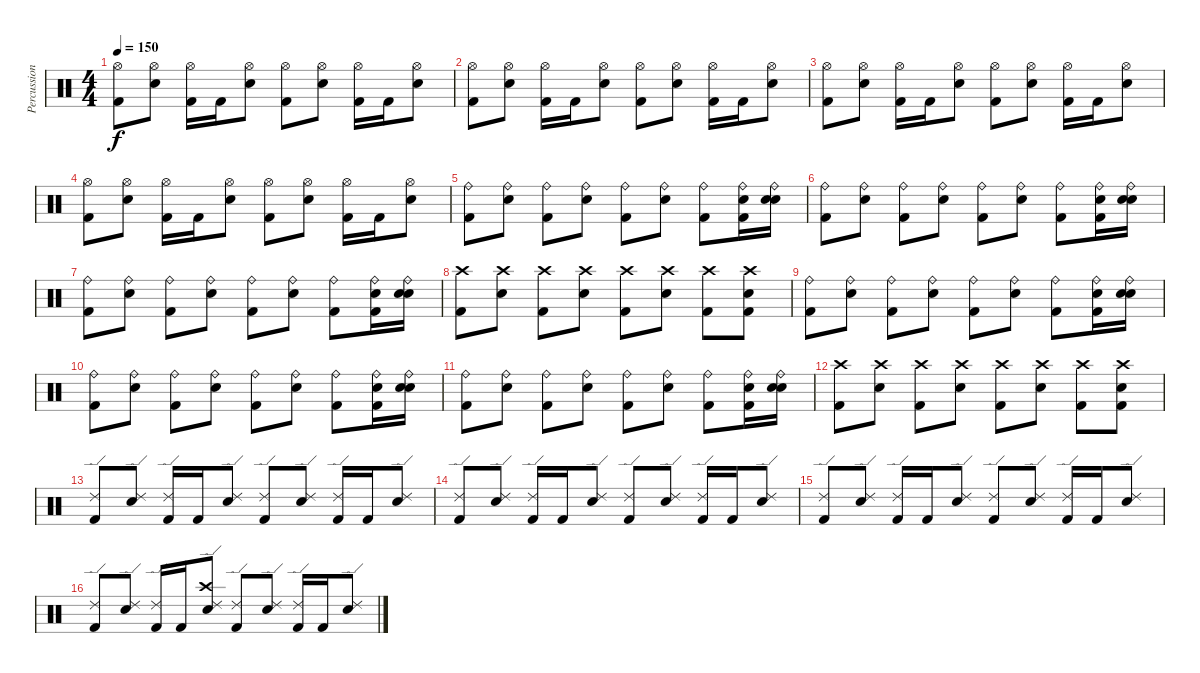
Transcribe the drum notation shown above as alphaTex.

\track ("Percussion" "Percussion") {instrument percussion}
\staff {score}
\articulation defaults
\ts (4 4)
\tempo 150
\clef neutral
\ks c
("Hi-Hat (open)" "Kick (hit) 2").8{dy f} ("Hi-Hat (open)" "Snare (hit) 2").8 ("Hi-Hat (open)" "Kick (hit) 2").16 "Kick (hit) 2".16 ("Hi-Hat (open)" "Snare (hit) 2").8 ("Hi-Hat (open)" "Kick (hit) 2").8 ("Hi-Hat (open)" "Snare (hit) 2").8 ("Hi-Hat (open)" "Kick (hit) 2").16 "Kick (hit) 2".16 ("Hi-Hat (open)" "Snare (hit) 2").8 |
("Hi-Hat (open)" "Kick (hit) 2").8 ("Hi-Hat (open)" "Snare (hit) 2").8 ("Hi-Hat (open)" "Kick (hit) 2").16 "Kick (hit) 2".16 ("Hi-Hat (open)" "Snare (hit) 2").8 ("Hi-Hat (open)" "Kick (hit) 2").8 ("Hi-Hat (open)" "Snare (hit) 2").8 ("Hi-Hat (open)" "Kick (hit) 2").16 "Kick (hit) 2".16 ("Hi-Hat (open)" "Snare (hit) 2").8 |
("Hi-Hat (open)" "Kick (hit) 2").8 ("Hi-Hat (open)" "Snare (hit) 2").8 ("Hi-Hat (open)" "Kick (hit) 2").16 "Kick (hit) 2".16 ("Hi-Hat (open)" "Snare (hit) 2").8 ("Hi-Hat (open)" "Kick (hit) 2").8 ("Hi-Hat (open)" "Snare (hit) 2").8 ("Hi-Hat (open)" "Kick (hit) 2").16 "Kick (hit) 2".16 ("Hi-Hat (open)" "Snare (hit) 2").8 |
("Hi-Hat (open)" "Kick (hit) 2").8 ("Hi-Hat (open)" "Snare (hit) 2").8 ("Hi-Hat (open)" "Kick (hit) 2").16 "Kick (hit) 2".16 ("Hi-Hat (open)" "Snare (hit) 2").8 ("Hi-Hat (open)" "Kick (hit) 2").8 ("Hi-Hat (open)" "Snare (hit) 2").8 ("Hi-Hat (open)" "Kick (hit) 2").16 "Kick (hit) 2".16 ("Hi-Hat (open)" "Snare (hit) 2").8 |
("Ride (bell)" "Kick (hit) 2").8 ("Ride (bell)" "Snare (hit) 2").8 ("Ride (bell)" "Kick (hit) 2").8 ("Ride (bell)" "Snare (hit) 2").8 ("Ride (bell)" "Kick (hit) 2").8 ("Ride (bell)" "Snare (hit) 2").8 ("Ride (bell)" "Kick (hit) 2").8 ("Ride (bell)" "Snare (hit) 2" "Kick (hit) 2").16 ("Ride (bell)" "Snare (hit) 2" "Snare (hit) 2").16 |
("Ride (bell)" "Kick (hit) 2").8 ("Ride (bell)" "Snare (hit) 2").8 ("Ride (bell)" "Kick (hit) 2").8 ("Ride (bell)" "Snare (hit) 2").8 ("Ride (bell)" "Kick (hit) 2").8 ("Ride (bell)" "Snare (hit) 2").8 ("Ride (bell)" "Kick (hit) 2").8 ("Ride (bell)" "Snare (hit) 2" "Kick (hit) 2").16 ("Ride (bell)" "Snare (hit) 2" "Snare (hit) 2").16 |
("Ride (bell)" "Kick (hit) 2").8 ("Ride (bell)" "Snare (hit) 2").8 ("Ride (bell)" "Kick (hit) 2").8 ("Ride (bell)" "Snare (hit) 2").8 ("Ride (bell)" "Kick (hit) 2").8 ("Ride (bell)" "Snare (hit) 2").8 ("Ride (bell)" "Kick (hit) 2").8 ("Ride (bell)" "Snare (hit) 2" "Kick (hit) 2").16 ("Ride (bell)" "Snare (hit) 2" "Snare (hit) 2").16 |
("Crash high (hit)" "Kick (hit) 2").8 ("Crash high (hit)" "Snare (hit) 2").8 ("Crash high (hit)" "Kick (hit) 2").8 ("Crash high (hit)" "Snare (hit) 2").8 ("Crash high (hit)" "Kick (hit) 2").8 ("Crash high (hit)" "Snare (hit) 2").8 ("Crash high (hit)" "Kick (hit) 2").8 ("Crash high (hit)" "Snare (hit) 2" "Kick (hit) 2").8 |
("Ride (bell)" "Kick (hit) 2").8 ("Ride (bell)" "Snare (hit) 2").8 ("Ride (bell)" "Kick (hit) 2").8 ("Ride (bell)" "Snare (hit) 2").8 ("Ride (bell)" "Kick (hit) 2").8 ("Ride (bell)" "Snare (hit) 2").8 ("Ride (bell)" "Kick (hit) 2").8 ("Ride (bell)" "Snare (hit) 2" "Kick (hit) 2").16 ("Ride (bell)" "Snare (hit) 2" "Snare (hit) 2").16 |
("Ride (bell)" "Kick (hit) 2").8 ("Ride (bell)" "Snare (hit) 2").8 ("Ride (bell)" "Kick (hit) 2").8 ("Ride (bell)" "Snare (hit) 2").8 ("Ride (bell)" "Kick (hit) 2").8 ("Ride (bell)" "Snare (hit) 2").8 ("Ride (bell)" "Kick (hit) 2").8 ("Ride (bell)" "Snare (hit) 2" "Kick (hit) 2").16 ("Ride (bell)" "Snare (hit) 2" "Snare (hit) 2").16 |
("Ride (bell)" "Kick (hit) 2").8 ("Ride (bell)" "Snare (hit) 2").8 ("Ride (bell)" "Kick (hit) 2").8 ("Ride (bell)" "Snare (hit) 2").8 ("Ride (bell)" "Kick (hit) 2").8 ("Ride (bell)" "Snare (hit) 2").8 ("Ride (bell)" "Kick (hit) 2").8 ("Ride (bell)" "Snare (hit) 2" "Kick (hit) 2").16 ("Ride (bell)" "Snare (hit) 2" "Snare (hit) 2").16 |
("Crash high (hit)" "Kick (hit) 2").8 ("Crash high (hit)" "Snare (hit) 2").8 ("Crash high (hit)" "Kick (hit) 2").8 ("Crash high (hit)" "Snare (hit) 2").8 ("Crash high (hit)" "Kick (hit) 2").8 ("Crash high (hit)" "Snare (hit) 2").8 ("Crash high (hit)" "Kick (hit) 2").8 ("Crash high (hit)" "Snare (hit) 2" "Kick (hit) 2").8 |
("Ride (edge) 2" "Kick (hit) 2").8 ("Ride (edge) 2" "Snare (hit) 2").8 ("Ride (edge) 2" "Kick (hit) 2").16 "Kick (hit) 2".16 ("Ride (edge) 2" "Snare (hit) 2").8 ("Ride (edge) 2" "Kick (hit) 2").8 ("Ride (edge) 2" "Snare (hit) 2").8 ("Ride (edge) 2" "Kick (hit) 2").16 "Kick (hit) 2".16 ("Ride (edge) 2" "Snare (hit) 2").8 |
("Ride (edge) 2" "Kick (hit) 2").8 ("Ride (edge) 2" "Snare (hit) 2").8 ("Ride (edge) 2" "Kick (hit) 2").16 "Kick (hit) 2".16 ("Ride (edge) 2" "Snare (hit) 2").8 ("Ride (edge) 2" "Kick (hit) 2").8 ("Ride (edge) 2" "Snare (hit) 2").8 ("Ride (edge) 2" "Kick (hit) 2").16 "Kick (hit) 2".16 ("Ride (edge) 2" "Snare (hit) 2").8 |
("Ride (edge) 2" "Kick (hit) 2").8 ("Ride (edge) 2" "Snare (hit) 2").8 ("Ride (edge) 2" "Kick (hit) 2").16 "Kick (hit) 2".16 ("Ride (edge) 2" "Snare (hit) 2").8 ("Ride (edge) 2" "Kick (hit) 2").8 ("Ride (edge) 2" "Snare (hit) 2").8 ("Ride (edge) 2" "Kick (hit) 2").16 "Kick (hit) 2".16 ("Ride (edge) 2" "Snare (hit) 2").8 |
("Ride (edge) 2" "Kick (hit) 2").8 ("Ride (edge) 2" "Snare (hit) 2").8 ("Ride (edge) 2" "Kick (hit) 2").16 "Kick (hit) 2".16 ("Crash high (hit)" "Ride (edge) 2" "Snare (hit) 2").8 ("Ride (edge) 2" "Kick (hit) 2").8 ("Ride (edge) 2" "Snare (hit) 2").8 ("Ride (edge) 2" "Kick (hit) 2").16 "Kick (hit) 2".16 ("Ride (edge) 2" "Snare (hit) 2").8
